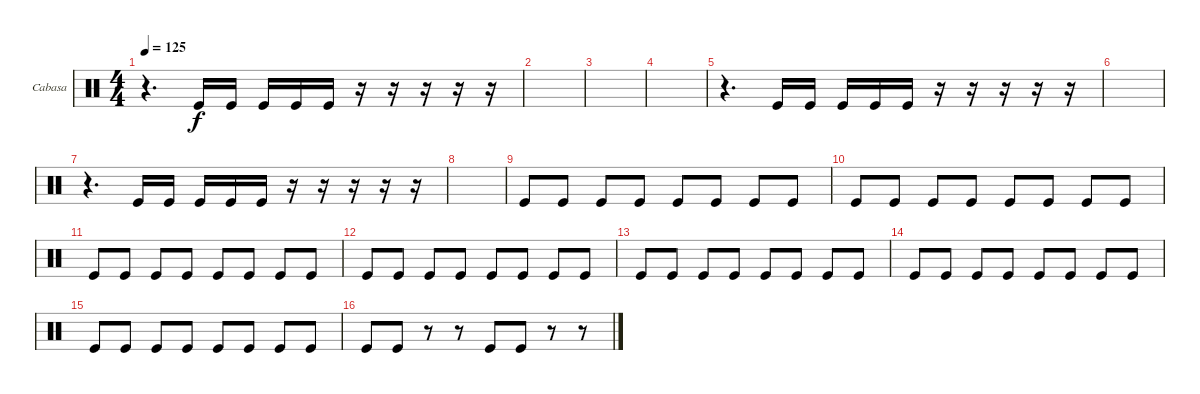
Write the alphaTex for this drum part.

\bracketExtendMode groupsimilarinstruments
\firstSystemTrackNameOrientation horizontal
\otherSystemsTrackNameOrientation horizontal
\track ("Cabasa" "Cabasa") {instrument percussion}
\staff {score}
\articulation defaults
\ts (4 4)
\tempo 125
\clef neutral
\ks c
r.4{d dy f} "Kick (hit)".16 "Kick (hit)".16 "Kick (hit)".16 "Kick (hit)".16 "Kick (hit)".16 r.16 r.16 r.16 r.16 r.16 |
|
\scale
0.333333 |
|
r.4{d} "Kick (hit)".16 "Kick (hit)".16 "Kick (hit)".16 "Kick (hit)".16 "Kick (hit)".16 r.16 r.16 r.16 r.16 r.16 |
|
r.4{d} "Kick (hit)".16 "Kick (hit)".16 "Kick (hit)".16 "Kick (hit)".16 "Kick (hit)".16 r.16 r.16 r.16 r.16 r.16 |
|
"Kick (hit)".8 "Kick (hit)".8 "Kick (hit)".8 "Kick (hit)".8 "Kick (hit)".8 "Kick (hit)".8 "Kick (hit)".8 "Kick (hit)".8 |
"Kick (hit)".8 "Kick (hit)".8 "Kick (hit)".8 "Kick (hit)".8 "Kick (hit)".8 "Kick (hit)".8 "Kick (hit)".8 "Kick (hit)".8 |
"Kick (hit)".8 "Kick (hit)".8 "Kick (hit)".8 "Kick (hit)".8 "Kick (hit)".8 "Kick (hit)".8 "Kick (hit)".8 "Kick (hit)".8 |
"Kick (hit)".8 "Kick (hit)".8 "Kick (hit)".8 "Kick (hit)".8 "Kick (hit)".8 "Kick (hit)".8 "Kick (hit)".8 "Kick (hit)".8 |
"Kick (hit)".8 "Kick (hit)".8 "Kick (hit)".8 "Kick (hit)".8 "Kick (hit)".8 "Kick (hit)".8 "Kick (hit)".8 "Kick (hit)".8 |
"Kick (hit)".8 "Kick (hit)".8 "Kick (hit)".8 "Kick (hit)".8 "Kick (hit)".8 "Kick (hit)".8 "Kick (hit)".8 "Kick (hit)".8 |
"Kick (hit)".8 "Kick (hit)".8 "Kick (hit)".8 "Kick (hit)".8 "Kick (hit)".8 "Kick (hit)".8 "Kick (hit)".8 "Kick (hit)".8 |
"Kick (hit)".8 "Kick (hit)".8 r.8 r.8 "Kick (hit)".8 "Kick (hit)".8 r.8 r.8
